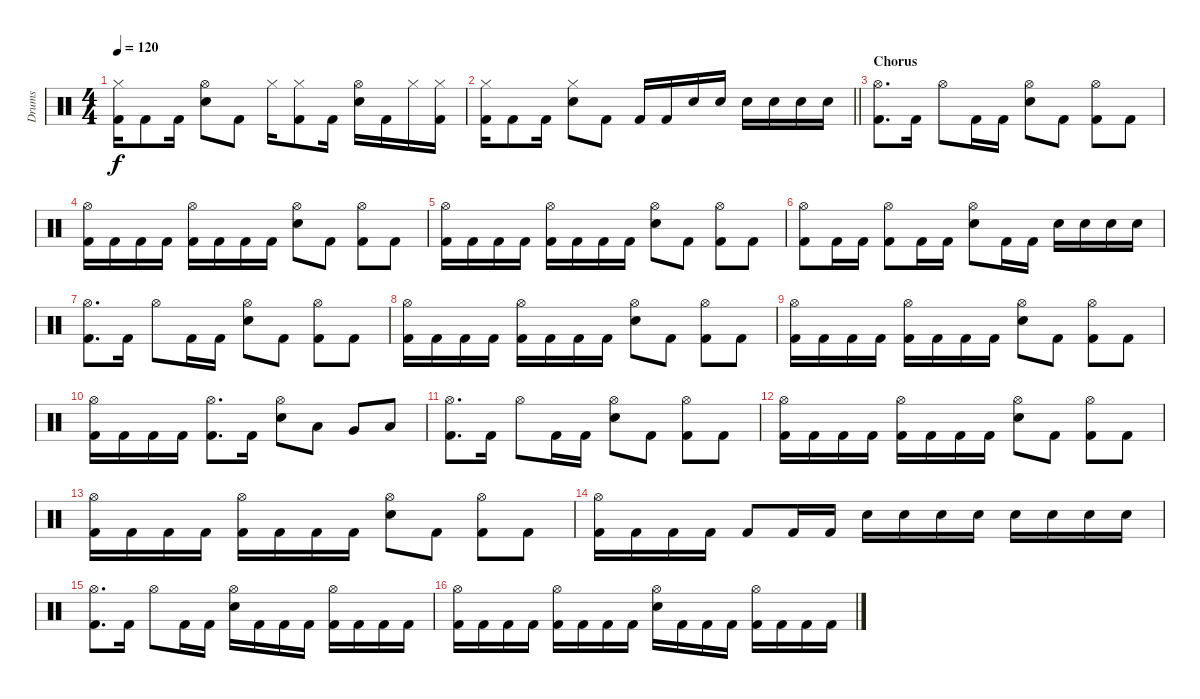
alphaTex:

\track ("Drums" "Drums") {instrument percussion}
\staff {score}
\articulation defaults
\ts (4 4)
\tempo 120
\clef neutral
\ks c
("Hi-Hat (closed)" "Kick (hit) 2").16{dy f} "Kick (hit) 2".8 "Kick (hit) 2".16 ("Hi-Hat (open)" "Snare (hit) 2").8 "Kick (hit) 2".8 "Hi-Hat (closed)".16 ("Hi-Hat (closed)" "Kick (hit) 2").8 "Kick (hit) 2".16 ("Hi-Hat (open)" "Snare (hit) 2").16 "Kick (hit) 2".16 "Hi-Hat (closed)".16 ("Hi-Hat (closed)" "Kick (hit) 2").16 |
\barLineRight lightlight
("Hi-Hat (closed)" "Kick (hit) 2").16 "Kick (hit) 2".8 "Kick (hit) 2".16 ("Hi-Hat (closed)" "Snare (hit) 2").8 "Kick (hit) 2".8 "Kick (hit) 2".16 "Kick (hit) 2".16 "Snare (hit) 2".16 "Snare (hit) 2".16 "Snare (hit) 2".16 "Snare (hit) 2".16 "Snare (hit) 2".16 "Snare (hit) 2".16 |
\section ("" "Chorus")
("Hi-Hat (open)" "Kick (hit) 2").8{d} "Kick (hit) 2".16 "Hi-Hat (open)".8 "Kick (hit) 2".16 "Kick (hit) 2".16 ("Hi-Hat (open)" "Snare (hit) 2").8 "Kick (hit) 2".8 ("Hi-Hat (open)" "Kick (hit) 2").8 "Kick (hit) 2".8 |
("Hi-Hat (open)" "Kick (hit) 2").16 "Kick (hit) 2".16 "Kick (hit) 2".16 "Kick (hit) 2".16 ("Hi-Hat (open)" "Kick (hit) 2").16 "Kick (hit) 2".16 "Kick (hit) 2".16 "Kick (hit) 2".16 ("Hi-Hat (open)" "Snare (hit) 2").8 "Kick (hit) 2".8 ("Hi-Hat (open)" "Kick (hit) 2").8 "Kick (hit) 2".8 |
("Hi-Hat (open)" "Kick (hit) 2").16 "Kick (hit) 2".16 "Kick (hit) 2".16 "Kick (hit) 2".16 ("Hi-Hat (open)" "Kick (hit) 2").16 "Kick (hit) 2".16 "Kick (hit) 2".16 "Kick (hit) 2".16 ("Hi-Hat (open)" "Snare (hit) 2").8 "Kick (hit) 2".8 ("Hi-Hat (open)" "Kick (hit) 2").8 "Kick (hit) 2".8 |
("Hi-Hat (open)" "Kick (hit) 2").8 "Kick (hit) 2".16 "Kick (hit) 2".16 ("Hi-Hat (open)" "Kick (hit) 2").8 "Kick (hit) 2".16 "Kick (hit) 2".16 ("Hi-Hat (open)" "Snare (hit) 2").8 "Kick (hit) 2".16 "Kick (hit) 2".16 "Snare (hit) 2".16 "Snare (hit) 2".16 "Snare (hit) 2".16 "Snare (hit) 2".16 |
("Hi-Hat (open)" "Kick (hit) 2").8{d} "Kick (hit) 2".16 "Hi-Hat (open)".8 "Kick (hit) 2".16 "Kick (hit) 2".16 ("Hi-Hat (open)" "Snare (hit) 2").8 "Kick (hit) 2".8 ("Hi-Hat (open)" "Kick (hit) 2").8 "Kick (hit) 2".8 |
("Hi-Hat (open)" "Kick (hit) 2").16 "Kick (hit) 2".16 "Kick (hit) 2".16 "Kick (hit) 2".16 ("Hi-Hat (open)" "Kick (hit) 2").16 "Kick (hit) 2".16 "Kick (hit) 2".16 "Kick (hit) 2".16 ("Hi-Hat (open)" "Snare (hit) 2").8 "Kick (hit) 2".8 ("Hi-Hat (open)" "Kick (hit) 2").8 "Kick (hit) 2".8 |
("Hi-Hat (open)" "Kick (hit) 2").16 "Kick (hit) 2".16 "Kick (hit) 2".16 "Kick (hit) 2".16 ("Hi-Hat (open)" "Kick (hit) 2").16 "Kick (hit) 2".16 "Kick (hit) 2".16 "Kick (hit) 2".16 ("Hi-Hat (open)" "Snare (hit) 2").8 "Kick (hit) 2".8 ("Hi-Hat (open)" "Kick (hit) 2").8 "Kick (hit) 2".8 |
("Hi-Hat (open)" "Kick (hit) 2").16 "Kick (hit) 2".16 "Kick (hit) 2".16 "Kick (hit) 2".16 ("Hi-Hat (open)" "Kick (hit) 2").8{d} "Kick (hit) 2".16 ("Hi-Hat (open)" "Snare (hit) 2").8 "Low Tom (hit)".8 "Very Low Tom (hit)".8 "Low Floor Tom (hit)".8 |
("Hi-Hat (open)" "Kick (hit) 2").8{d} "Kick (hit) 2".16 "Hi-Hat (open)".8 "Kick (hit) 2".16 "Kick (hit) 2".16 ("Hi-Hat (open)" "Snare (hit) 2").8 "Kick (hit) 2".8 ("Hi-Hat (open)" "Kick (hit) 2").8 "Kick (hit) 2".8 |
("Hi-Hat (open)" "Kick (hit) 2").16 "Kick (hit) 2".16 "Kick (hit) 2".16 "Kick (hit) 2".16 ("Hi-Hat (open)" "Kick (hit) 2").16 "Kick (hit) 2".16 "Kick (hit) 2".16 "Kick (hit) 2".16 ("Hi-Hat (open)" "Snare (hit) 2").8 "Kick (hit) 2".8 ("Hi-Hat (open)" "Kick (hit) 2").8 "Kick (hit) 2".8 |
("Hi-Hat (open)" "Kick (hit) 2").16 "Kick (hit) 2".16 "Kick (hit) 2".16 "Kick (hit) 2".16 ("Hi-Hat (open)" "Kick (hit) 2").16 "Kick (hit) 2".16 "Kick (hit) 2".16 "Kick (hit) 2".16 ("Hi-Hat (open)" "Snare (hit) 2").8 "Kick (hit) 2".8 ("Hi-Hat (open)" "Kick (hit) 2").8 "Kick (hit) 2".8 |
("Hi-Hat (open)" "Kick (hit) 2").16 "Kick (hit) 2".16 "Kick (hit) 2".16 "Kick (hit) 2".16 "Kick (hit) 2".8 "Kick (hit) 2".16 "Kick (hit) 2".16 "Snare (hit) 2".16 "Snare (hit) 2".16 "Snare (hit) 2".16 "Snare (hit) 2".16 "Snare (hit) 2".16 "Snare (hit) 2".16 "Snare (hit) 2".16 "Snare (hit) 2".16 |
("Hi-Hat (open)" "Kick (hit) 2").8{d} "Kick (hit) 2".16 "Hi-Hat (open)".8 "Kick (hit) 2".16 "Kick (hit) 2".16 ("Hi-Hat (open)" "Snare (hit) 2").16 "Kick (hit) 2".16 "Kick (hit) 2".16 "Kick (hit) 2".16 ("Hi-Hat (open)" "Kick (hit) 2").16 "Kick (hit) 2".16 "Kick (hit) 2".16 "Kick (hit) 2".16 |
("Hi-Hat (open)" "Kick (hit) 2").16 "Kick (hit) 2".16 "Kick (hit) 2".16 "Kick (hit) 2".16 ("Hi-Hat (open)" "Kick (hit) 2").16 "Kick (hit) 2".16 "Kick (hit) 2".16 "Kick (hit) 2".16 ("Hi-Hat (open)" "Snare (hit) 2").16 "Kick (hit) 2".16 "Kick (hit) 2".16 "Kick (hit) 2".16 ("Hi-Hat (open)" "Kick (hit) 2").16 "Kick (hit) 2".16 "Kick (hit) 2".16 "Kick (hit) 2".16
